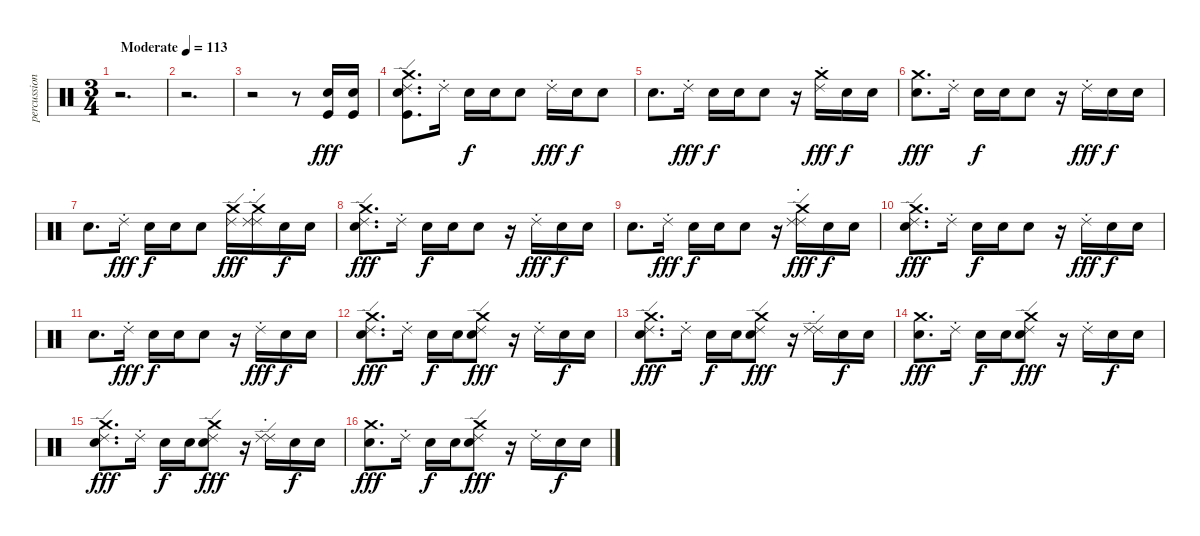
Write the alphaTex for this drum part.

\track ("percussion" "percussion") {instrument percussion}
\staff {score}
\articulation defaults
\ts (3 4)
\tempo (113 "Moderate")
\clef neutral
\ks c
r.2{d dy fff} |
r.2{d} |
r.2 r.8 ("Electric Snare (hit)" "Kick (hit)").16 ("Electric Snare (hit)" "Kick (hit)").16 |
("Ride (edge) 2" "Crash medium (hit)" "Electric Snare (hit)" "Kick (hit)").8{d} "Ride (choke) 2".16 "Electric Snare (hit)".16{dy f} "Electric Snare (hit)".16 "Electric Snare (hit)".8 "Ride (choke) 2".16{dy fff} "Electric Snare (hit)".16{dy f} "Electric Snare (hit)".8 |
"Electric Snare (hit)".8{d} "Ride (choke) 2".16{dy fff} "Electric Snare (hit)".16{dy f} "Electric Snare (hit)".16 "Electric Snare (hit)".8 r.16 ("Crash medium (hit)" "Ride (choke) 2").16{dy fff} "Electric Snare (hit)".16{dy f} "Electric Snare (hit)".16 |
("Crash medium (hit)" "Electric Snare (hit)").8{d dy fff} "Ride (choke) 2".16 "Electric Snare (hit)".16{dy f} "Electric Snare (hit)".16 "Electric Snare (hit)".8 r.16 "Ride (choke) 2".16{dy fff} "Electric Snare (hit)".16{dy f} "Electric Snare (hit)".16 |
"Electric Snare (hit)".8{d} "Ride (choke) 2".16{dy fff} "Electric Snare (hit)".16{dy f} "Electric Snare (hit)".16 "Electric Snare (hit)".8 ("Ride (edge) 2" "Crash medium (hit)").16{dy fff} ("Ride (edge) 2" "Crash medium (hit)" "Ride (choke) 2").16 "Electric Snare (hit)".16{dy f} "Electric Snare (hit)".16 |
("Ride (edge) 2" "Crash medium (hit)" "Electric Snare (hit)").8{d dy fff} "Ride (choke) 2".16 "Electric Snare (hit)".16{dy f} "Electric Snare (hit)".16 "Electric Snare (hit)".8 r.16 "Ride (choke) 2".16{dy fff} "Electric Snare (hit)".16{dy f} "Electric Snare (hit)".16 |
"Electric Snare (hit)".8{d} "Ride (choke) 2".16{dy fff} "Electric Snare (hit)".16{dy f} "Electric Snare (hit)".16 "Electric Snare (hit)".8 r.16 ("Ride (edge) 2" "Crash medium (hit)" "Ride (choke) 2").16{dy fff} "Electric Snare (hit)".16{dy f} "Electric Snare (hit)".16 |
("Ride (edge) 2" "Crash medium (hit)" "Electric Snare (hit)").8{d dy fff} "Ride (choke) 2".16 "Electric Snare (hit)".16{dy f} "Electric Snare (hit)".16 "Electric Snare (hit)".8 r.16 "Ride (choke) 2".16{dy fff} "Electric Snare (hit)".16{dy f} "Electric Snare (hit)".16 |
"Electric Snare (hit)".8{d} "Ride (choke) 2".16{dy fff} "Electric Snare (hit)".16{dy f} "Electric Snare (hit)".16 "Electric Snare (hit)".8 r.16 "Ride (choke) 2".16{dy fff} "Electric Snare (hit)".16{dy f} "Electric Snare (hit)".16 |
("Ride (edge) 2" "Crash medium (hit)" "Electric Snare (hit)").8{d dy fff} "Ride (choke) 2".16 "Electric Snare (hit)".16{dy f} "Electric Snare (hit)".16 ("Ride (edge) 2" "Crash medium (hit)" "Electric Snare (hit)").8{dy fff} r.16 "Ride (choke) 2".16 "Electric Snare (hit)".16{dy f} "Electric Snare (hit)".16 |
("Ride (edge) 2" "Crash medium (hit)" "Electric Snare (hit)").8{d dy fff} "Ride (choke) 2".16 "Electric Snare (hit)".16{dy f} "Electric Snare (hit)".16 ("Ride (edge) 2" "Crash medium (hit)" "Electric Snare (hit)").8{dy fff} r.16 ("Ride (edge) 2" "Ride (choke) 2").16 "Electric Snare (hit)".16{dy f} "Electric Snare (hit)".16 |
("Crash medium (hit)" "Electric Snare (hit)").8{d dy fff} "Ride (choke) 2".16 "Electric Snare (hit)".16{dy f} "Electric Snare (hit)".16 ("Ride (edge) 2" "Crash medium (hit)" "Electric Snare (hit)").8{dy fff} r.16 "Ride (choke) 2".16 "Electric Snare (hit)".16{dy f} "Electric Snare (hit)".16 |
("Ride (edge) 2" "Crash medium (hit)" "Electric Snare (hit)").8{d dy fff} "Ride (choke) 2".16 "Electric Snare (hit)".16{dy f} "Electric Snare (hit)".16 ("Ride (edge) 2" "Crash medium (hit)" "Electric Snare (hit)").8{dy fff} r.16 ("Ride (edge) 2" "Ride (choke) 2").16 "Electric Snare (hit)".16{dy f} "Electric Snare (hit)".16 |
("Crash medium (hit)" "Electric Snare (hit)").8{d dy fff} "Ride (choke) 2".16 "Electric Snare (hit)".16{dy f} "Electric Snare (hit)".16 ("Ride (edge) 2" "Crash medium (hit)" "Electric Snare (hit)").8{dy fff} r.16 "Ride (choke) 2".16 "Electric Snare (hit)".16{dy f} "Electric Snare (hit)".16
